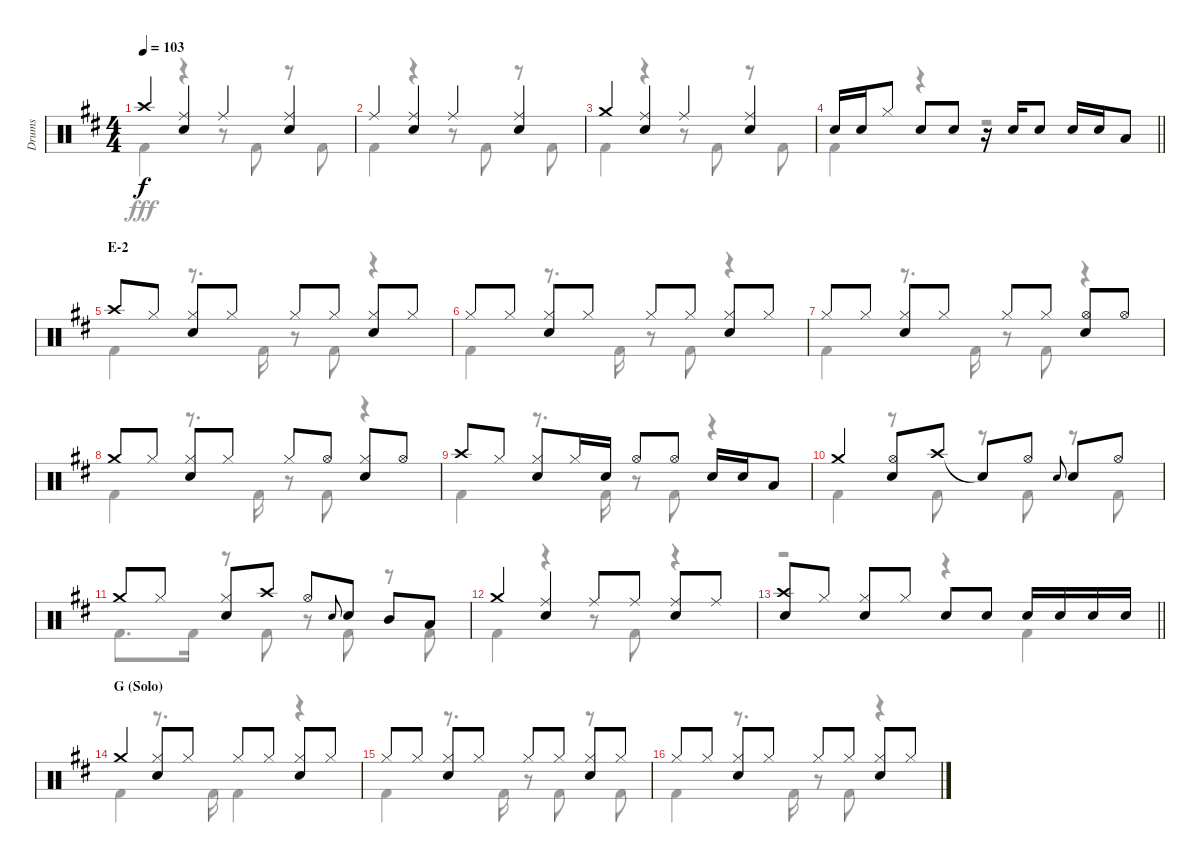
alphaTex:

\track ("Drums" "Drums") {instrument percussion}
\staff {score}
\articulation defaults
\voice
\ts (4 4)
\tempo 103
\clef neutral
\ks d "Crash high (hit)".4{dy f}
("Ride (middle)" "Snare (hit) 2").4 "Ride (middle)".4 ("Ride (middle)" "Snare (hit) 2").4 |
"Ride (middle)".4 ("Ride (middle)" "Snare (hit) 2").4 "Ride (middle)".4 ("Ride (middle)" "Snare (hit) 2").4 |
"Crash medium (hit)".4 ("Ride (middle)" "Snare (hit) 2").4 "Ride (middle)".4 ("Ride (middle)" "Snare (hit) 2").4 |
\barLineRight lightlight "Snare (hit) 2".16 "Snare (hit) 2".16 "Hi-Hat (closed)".8 "Snare (hit) 2".8 "Snare (hit) 2".8
r.16 "Snare (hit) 2".16 "Snare (hit) 2".8 "Snare (hit) 2".16 "Snare (hit) 2".16 "Low Tom (hit)".8 |
\section ("" "E-2")
"Crash high (hit)".8 "Hi-Hat (closed)".8 ("Hi-Hat (closed)" "Snare (hit) 2").8 "Hi-Hat (closed)".8 "Hi-Hat (closed)".8 "Hi-Hat (closed)".8 ("Hi-Hat (closed)" "Snare (hit) 2").8 "Hi-Hat (closed)".8 |
"Hi-Hat (closed)".8 "Hi-Hat (closed)".8 ("Hi-Hat (closed)" "Snare (hit) 2").8 "Hi-Hat (closed)".8 "Hi-Hat (closed)".8 "Hi-Hat (closed)".8 ("Hi-Hat (closed)" "Snare (hit) 2").8 "Hi-Hat (closed)".8 |
"Hi-Hat (closed)".8 "Hi-Hat (closed)".8 ("Hi-Hat (closed)" "Snare (hit) 2").8 "Hi-Hat (closed)".8 "Hi-Hat (closed)".8 "Hi-Hat (closed)".8 ("Hi-Hat (open)" "Snare (hit) 2").8 "Hi-Hat (open)".8 |
"Crash medium (hit)".8 "Hi-Hat (closed)".8 ("Hi-Hat (closed)" "Snare (hit) 2").8 "Hi-Hat (closed)".8 "Hi-Hat (closed)".8 "Hi-Hat (open)".8 ("Hi-Hat (closed)" "Snare (hit) 2").8 "Hi-Hat (open)".8 |
"Crash high (hit)".8 "Hi-Hat (closed)".8 ("Hi-Hat (closed)" "Snare (hit) 2").8 "Hi-Hat (closed)".16 "Snare (hit) 2".16 "Hi-Hat (open)".8 "Hi-Hat (open)".8 "Snare (hit) 2".16 "Snare (hit) 2".16 "Low Tom (hit)".8 |
"Crash medium (hit)".4 ("Hi-Hat (open)" "Snare (hit) 2").8 "Crash high (hit)".8 "Snare (hit)"{t}.8 "Hi-Hat (open)".8 "Snare (hit) 2".8{gr onbeat} "Snare (hit) 2".8 "Hi-Hat (open)".8 |
"Crash medium (hit)".8 "Hi-Hat (closed)".8 ("Hi-Hat (closed)" "Snare (hit) 2").8 "Crash high (hit)".8 "Hi-Hat (open)".8 "Snare (hit) 2".8{gr onbeat} "Snare (hit) 2".8 "Mid Tom (hit)".8 "Low Tom (hit)".8 |
"Crash medium (hit)".4 ("Ride (middle)" "Snare (hit) 2").4 "Ride (middle)".8 "Ride (middle)".8 ("Ride (middle)" "Snare (hit) 2").8 "Ride (middle)".8 |
\barLineRight lightlight
("Crash high (hit)" "Snare (hit) 2").8 "Hi-Hat (closed)".8 ("Hi-Hat (closed)" "Snare (hit) 2").8 "Hi-Hat (closed)".8 "Snare (hit) 2".8 "Snare (hit) 2".8 "Snare (hit) 2".16 "Snare (hit) 2".16 "Snare (hit) 2".16 "Snare (hit) 2".16 |
\section ("" "G (Solo)")
"Crash medium (hit)".4 ("Hi-Hat (closed)" "Snare (hit) 2").8 "Hi-Hat (closed)".8 "Hi-Hat (closed)".8 "Hi-Hat (closed)".8 ("Hi-Hat (closed)" "Snare (hit) 2").8 "Hi-Hat (closed)".8 |
"Hi-Hat (closed)".8 "Hi-Hat (closed)".8 ("Hi-Hat (closed)" "Snare (hit) 2").8 "Hi-Hat (closed)".8 "Hi-Hat (closed)".8 "Hi-Hat (closed)".8 ("Hi-Hat (closed)" "Snare (hit) 2").8 "Hi-Hat (closed)".8 |
"Hi-Hat (closed)".8 "Hi-Hat (closed)".8 ("Hi-Hat (closed)" "Snare (hit) 2").8 "Hi-Hat (closed)".8 "Hi-Hat (closed)".8 "Hi-Hat (closed)".8 ("Hi-Hat (closed)" "Snare (hit) 2").8 "Hi-Hat (closed)".8
\voice
\clef neutral
\ottava regular
\simile none
\ks d "Kick (hit) 2".4{dy fff}
r.4 r.8 "Kick (hit) 2".8 r.8 "Kick (hit) 2".8 |
"Kick (hit) 2".4 r.4 r.8 "Kick (hit) 2".8 r.8 "Kick (hit) 2".8 |
"Kick (hit) 2".4 r.4 r.8 "Kick (hit) 2".8 r.8 "Kick (hit) 2".8 |
\barLineRight lightlight "Kick (hit) 2".4
r.4 r.2 |
"Kick (hit) 2".4 r.8{d} "Kick (hit) 2".16 r.8 "Kick (hit) 2".8 r.4 |
"Kick (hit) 2".4 r.8{d} "Kick (hit) 2".16 r.8 "Kick (hit) 2".8 r.4 |
"Kick (hit) 2".4 r.8{d} "Kick (hit) 2".16 r.8 "Kick (hit) 2".8 r.4 |
"Kick (hit) 2".4 r.8{d} "Kick (hit) 2".16 r.8 "Kick (hit) 2".8 r.4 |
"Kick (hit) 2".4 r.8{d} "Kick (hit) 2".16 r.8 "Kick (hit) 2".8 r.4 |
"Kick (hit) 2".4 r.8 "Kick (hit) 2".8 r.8 "Kick (hit) 2".8 r.8 "Kick (hit) 2".8 |
"Kick (hit) 2".8{d} "Kick (hit) 2".16 r.8 "Kick (hit) 2".8 r.8 "Kick (hit) 2".8 r.8 "Kick (hit) 2".8 |
"Kick (hit) 2".4 r.4 r.8 "Kick (hit) 2".8 r.4 |
\barLineRight lightlight
r.2 r.4 "Kick (hit) 2".4 |
"Kick (hit) 2".4 r.8{d} "Kick (hit) 2".16 "Kick (hit) 2".4 r.4 |
"Kick (hit) 2".4 r.8{d} "Kick (hit) 2".16 r.8 "Kick (hit) 2".8 r.8 "Kick (hit) 2".8 |
"Kick (hit) 2".4 r.8{d} "Kick (hit) 2".16 r.8 "Kick (hit) 2".8 r.4
